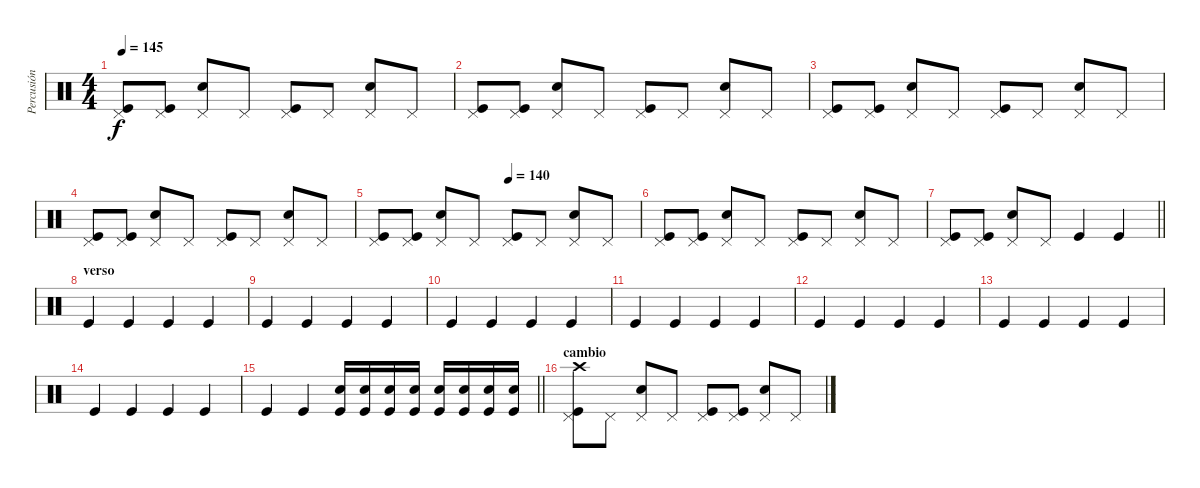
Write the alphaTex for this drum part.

\track ("Percusión" "Percusión") {instrument percussion}
\staff {score}
\articulation defaults
\ts (4 4)
\tempo 145
\clef neutral
\ks c
("Kick (hit)" "Pedal Hi-Hat (hit)").8{dy f} ("Kick (hit)" "Pedal Hi-Hat (hit)").8 ("Snare (hit) 2" "Pedal Hi-Hat (hit)").8 "Pedal Hi-Hat (hit)".8 ("Kick (hit)" "Pedal Hi-Hat (hit)").8 "Pedal Hi-Hat (hit)".8 ("Snare (hit) 2" "Pedal Hi-Hat (hit)").8 "Pedal Hi-Hat (hit)".8 |
("Kick (hit)" "Pedal Hi-Hat (hit)").8 ("Kick (hit)" "Pedal Hi-Hat (hit)").8 ("Snare (hit) 2" "Pedal Hi-Hat (hit)").8 "Pedal Hi-Hat (hit)".8 ("Kick (hit)" "Pedal Hi-Hat (hit)").8 "Pedal Hi-Hat (hit)".8 ("Snare (hit) 2" "Pedal Hi-Hat (hit)").8 "Pedal Hi-Hat (hit)".8 |
("Kick (hit)" "Pedal Hi-Hat (hit)").8 ("Kick (hit)" "Pedal Hi-Hat (hit)").8 ("Snare (hit) 2" "Pedal Hi-Hat (hit)").8 "Pedal Hi-Hat (hit)".8 ("Kick (hit)" "Pedal Hi-Hat (hit)").8 "Pedal Hi-Hat (hit)".8 ("Snare (hit) 2" "Pedal Hi-Hat (hit)").8 "Pedal Hi-Hat (hit)".8 |
("Kick (hit)" "Pedal Hi-Hat (hit)").8 ("Kick (hit)" "Pedal Hi-Hat (hit)").8 ("Snare (hit) 2" "Pedal Hi-Hat (hit)").8 "Pedal Hi-Hat (hit)".8 ("Kick (hit)" "Pedal Hi-Hat (hit)").8 "Pedal Hi-Hat (hit)".8 ("Snare (hit) 2" "Pedal Hi-Hat (hit)").8 "Pedal Hi-Hat (hit)".8 |
\tempo (140 0.5)
("Kick (hit)" "Pedal Hi-Hat (hit)").8 ("Kick (hit)" "Pedal Hi-Hat (hit)").8 ("Snare (hit) 2" "Pedal Hi-Hat (hit)").8 "Pedal Hi-Hat (hit)".8 ("Kick (hit)" "Pedal Hi-Hat (hit)").8 "Pedal Hi-Hat (hit)".8 ("Snare (hit) 2" "Pedal Hi-Hat (hit)").8 "Pedal Hi-Hat (hit)".8 |
("Kick (hit)" "Pedal Hi-Hat (hit)").8 ("Kick (hit)" "Pedal Hi-Hat (hit)").8 ("Snare (hit) 2" "Pedal Hi-Hat (hit)").8 "Pedal Hi-Hat (hit)".8 ("Kick (hit)" "Pedal Hi-Hat (hit)").8 "Pedal Hi-Hat (hit)".8 ("Snare (hit) 2" "Pedal Hi-Hat (hit)").8 "Pedal Hi-Hat (hit)".8 |
\barLineRight lightlight
("Kick (hit)" "Pedal Hi-Hat (hit)").8 ("Kick (hit)" "Pedal Hi-Hat (hit)").8 ("Snare (hit) 2" "Pedal Hi-Hat (hit)").8 "Pedal Hi-Hat (hit)".8 "Kick (hit)".4 "Kick (hit)".4 |
\section ("" "verso")
"Kick (hit)".4 "Kick (hit)".4 "Kick (hit)".4 "Kick (hit)".4 |
"Kick (hit)".4 "Kick (hit)".4 "Kick (hit)".4 "Kick (hit)".4 |
"Kick (hit)".4 "Kick (hit)".4 "Kick (hit)".4 "Kick (hit)".4 |
"Kick (hit)".4 "Kick (hit)".4 "Kick (hit)".4 "Kick (hit)".4 |
"Kick (hit)".4 "Kick (hit)".4 "Kick (hit)".4 "Kick (hit)".4 |
"Kick (hit)".4 "Kick (hit)".4 "Kick (hit)".4 "Kick (hit)".4 |
"Kick (hit)".4 "Kick (hit)".4 "Kick (hit)".4 "Kick (hit)".4 |
\barLineRight lightlight "Kick (hit)".4 "Kick (hit)".4
("Snare (hit) 2" "Kick (hit)").16 ("Snare (hit) 2" "Kick (hit)").16 ("Snare (hit) 2" "Kick (hit)").16 ("Snare (hit) 2" "Kick (hit)").16 ("Snare (hit) 2" "Kick (hit)").16 ("Snare (hit) 2" "Kick (hit)").16 ("Snare (hit) 2" "Kick (hit)").16 ("Snare (hit) 2" "Kick (hit)").16 |
\section ("" "cambio")
("Crash high (hit)" "Kick (hit)" "Pedal Hi-Hat (hit)").8 "Pedal Hi-Hat (hit)".8 ("Snare (hit) 2" "Pedal Hi-Hat (hit)").8 "Pedal Hi-Hat (hit)".8 ("Kick (hit)" "Pedal Hi-Hat (hit)").8 ("Kick (hit)" "Pedal Hi-Hat (hit)").8 ("Snare (hit) 2" "Pedal Hi-Hat (hit)").8 "Pedal Hi-Hat (hit)".8
